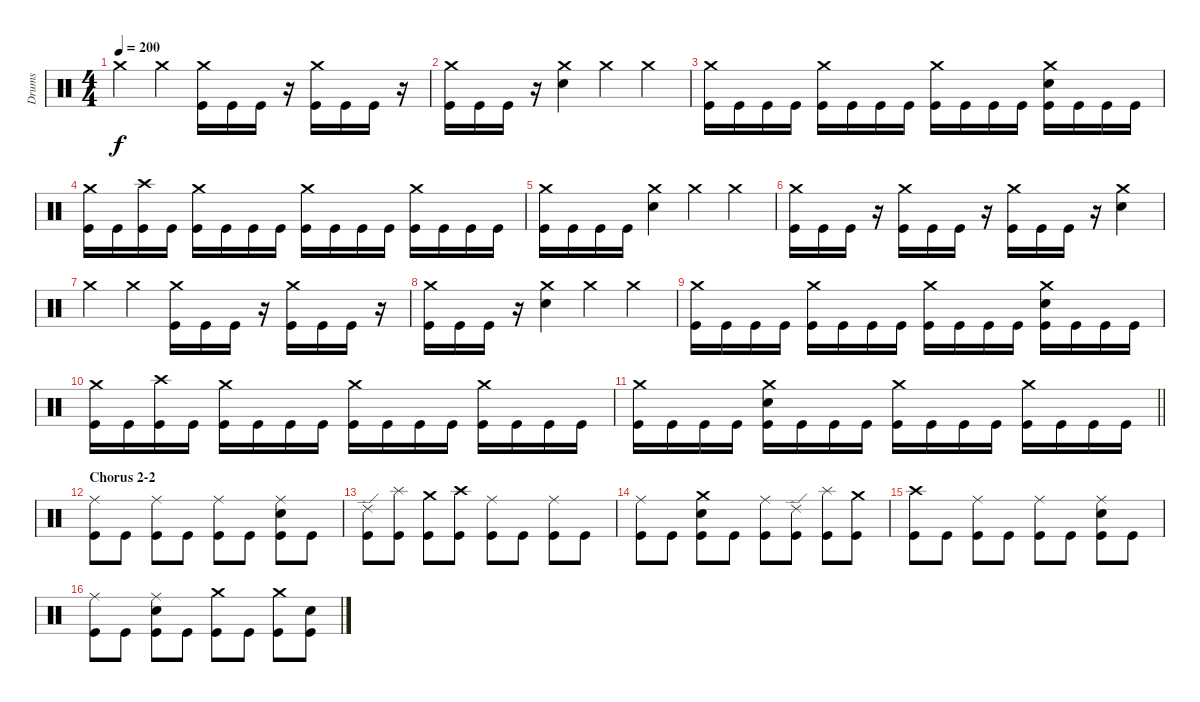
\track ("Drums" "Drums") {instrument percussion}
\staff {score}
\articulation defaults
\ts (4 4)
\tempo 200
\clef neutral
\ks c "Crash medium (hit)".4{dy f} "Crash medium (hit)".4
("Crash medium (hit)" "Kick (hit)").16 "Kick (hit)".16 "Kick (hit)".16 r.16 ("Crash medium (hit)" "Kick (hit)").16 "Kick (hit)".16 "Kick (hit)".16 r.16 |
("Crash medium (hit)" "Kick (hit)").16 "Kick (hit)".16 "Kick (hit)".16 r.16 ("Crash medium (hit)" "Snare (hit) 2").4 "Crash medium (hit)".4 "Crash medium (hit)".4 |
("Crash medium (hit)" "Kick (hit)").16 "Kick (hit)".16 "Kick (hit)".16 "Kick (hit)".16 ("Crash medium (hit)" "Kick (hit)").16 "Kick (hit)".16 "Kick (hit)".16 "Kick (hit)".16 ("Crash medium (hit)" "Kick (hit)").16 "Kick (hit)".16 "Kick (hit)".16 "Kick (hit)".16 ("Crash medium (hit)" "Snare (hit) 2" "Kick (hit)").16 "Kick (hit)".16 "Kick (hit)".16 "Kick (hit)".16 |
("Crash medium (hit)" "Kick (hit)").16 "Kick (hit)".16 ("Crash high (hit)" "Kick (hit)").16 "Kick (hit)".16 ("Crash medium (hit)" "Kick (hit)").16 "Kick (hit)".16 "Kick (hit)".16 "Kick (hit)".16 ("Crash medium (hit)" "Kick (hit)").16 "Kick (hit)".16 "Kick (hit)".16 "Kick (hit)".16 ("Crash medium (hit)" "Kick (hit)").16 "Kick (hit)".16 "Kick (hit)".16 "Kick (hit)".16 |
("Crash medium (hit)" "Kick (hit)").16 "Kick (hit)".16 "Kick (hit)".16 "Kick (hit)".16 ("Crash medium (hit)" "Snare (hit) 2").4 "Crash medium (hit)".4 "Crash medium (hit)".4 |
("Crash medium (hit)" "Kick (hit)").16 "Kick (hit)".16 "Kick (hit)".16 r.16 ("Crash medium (hit)" "Kick (hit)").16 "Kick (hit)".16 "Kick (hit)".16 r.16 ("Crash medium (hit)" "Kick (hit)").16 "Kick (hit)".16 "Kick (hit)".16 r.16 ("Crash medium (hit)" "Snare (hit) 2").4 |
"Crash medium (hit)".4 "Crash medium (hit)".4 ("Crash medium (hit)" "Kick (hit)").16 "Kick (hit)".16 "Kick (hit)".16 r.16 ("Crash medium (hit)" "Kick (hit)").16 "Kick (hit)".16 "Kick (hit)".16 r.16 |
("Crash medium (hit)" "Kick (hit)").16 "Kick (hit)".16 "Kick (hit)".16 r.16 ("Crash medium (hit)" "Snare (hit) 2").4 "Crash medium (hit)".4 "Crash medium (hit)".4 |
("Crash medium (hit)" "Kick (hit)").16 "Kick (hit)".16 "Kick (hit)".16 "Kick (hit)".16 ("Crash medium (hit)" "Kick (hit)").16 "Kick (hit)".16 "Kick (hit)".16 "Kick (hit)".16 ("Crash medium (hit)" "Kick (hit)").16 "Kick (hit)".16 "Kick (hit)".16 "Kick (hit)".16 ("Crash medium (hit)" "Snare (hit) 2" "Kick (hit)").16 "Kick (hit)".16 "Kick (hit)".16 "Kick (hit)".16 |
("Crash medium (hit)" "Kick (hit)").16 "Kick (hit)".16 ("Crash high (hit)" "Kick (hit)").16 "Kick (hit)".16 ("Crash medium (hit)" "Kick (hit)").16 "Kick (hit)".16 "Kick (hit)".16 "Kick (hit)".16 ("Crash medium (hit)" "Kick (hit)").16 "Kick (hit)".16 "Kick (hit)".16 "Kick (hit)".16 ("Crash medium (hit)" "Kick (hit)").16 "Kick (hit)".16 "Kick (hit)".16 "Kick (hit)".16 |
\barLineRight lightlight
("Crash medium (hit)" "Kick (hit)").16 "Kick (hit)".16 "Kick (hit)".16 "Kick (hit)".16 ("Crash medium (hit)" "Snare (hit) 2" "Kick (hit)").16 "Kick (hit)".16 "Kick (hit)".16 "Kick (hit)".16 ("Crash medium (hit)" "Kick (hit)").16 "Kick (hit)".16 "Kick (hit)".16 "Kick (hit)".16 ("Crash medium (hit)" "Kick (hit)").16 "Kick (hit)".16 "Kick (hit)".16 "Kick (hit)".16 |
\section ("" "Chorus 2-2")
("Ride (middle)" "Kick (hit)").8 "Kick (hit)".8 ("Ride (middle)" "Kick (hit)").8 "Kick (hit)".8 ("Ride (middle)" "Kick (hit)").8 "Kick (hit)".8 ("Ride (middle)" "Snare (hit) 2" "Kick (hit)").8 "Kick (hit)".8 |
("Ride (edge) 2" "Kick (hit)").8 ("Splash (hit)" "Kick (hit)").8 ("Crash medium (hit)" "Kick (hit)").8 ("Crash high (hit)" "Kick (hit)").8 ("Ride (middle)" "Kick (hit)").8 "Kick (hit)".8 ("Ride (middle)" "Kick (hit)").8 "Kick (hit)".8 |
("Ride (middle)" "Kick (hit)").8 "Kick (hit)".8 ("Crash medium (hit)" "Snare (hit) 2" "Kick (hit)").8 "Kick (hit)".8 ("Ride (middle)" "Kick (hit)").8 ("Ride (edge) 2" "Kick (hit)").8 ("Splash (hit)" "Kick (hit)").8 ("Crash medium (hit)" "Kick (hit)").8 |
("Crash high (hit)" "Kick (hit)").8 "Kick (hit)".8 ("Ride (middle)" "Kick (hit)").8 "Kick (hit)".8 ("Ride (middle)" "Kick (hit)").8 "Kick (hit)".8 ("Ride (middle)" "Snare (hit) 2" "Kick (hit)").8 "Kick (hit)".8 |
("Ride (middle)" "Kick (hit)").8 "Kick (hit)".8 ("Ride (middle)" "Snare (hit) 2" "Kick (hit)").8 "Kick (hit)".8 ("Crash medium (hit)" "Kick (hit)").8 "Kick (hit)".8 ("Crash medium (hit)" "Kick (hit)").8 ("Snare (hit) 2" "Kick (hit)").8
